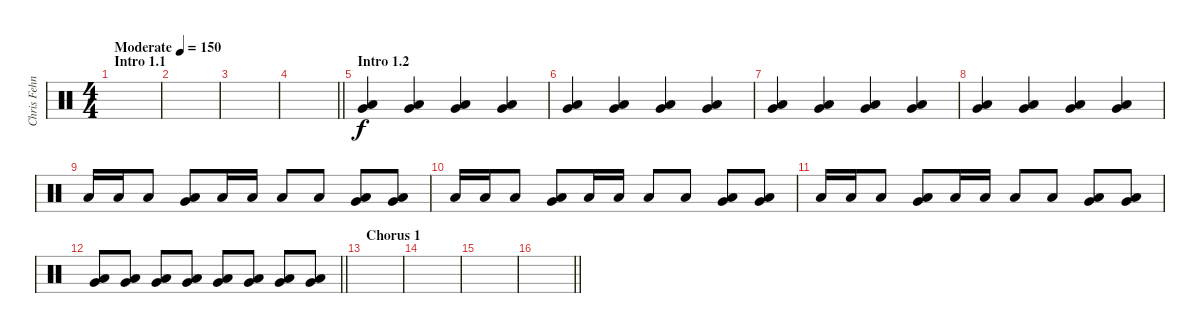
\track ("Chris Fehn" "Chris Fehn") {instrument percussion}
\staff {score}
\articulation defaults
\ts (4 4)
\section ("" "Intro 1.1")
\tempo (150 "Moderate")
\clef neutral
\ks c
|
|
|
\barLineRight lightlight
|
\section ("" "Intro 1.2")
("Very Low Tom (hit)" "Low Floor Tom (hit)").4 ("Very Low Tom (hit)" "Low Floor Tom (hit)").4 ("Very Low Tom (hit)" "Low Floor Tom (hit)").4 ("Very Low Tom (hit)" "Low Floor Tom (hit)").4 |
("Very Low Tom (hit)" "Low Floor Tom (hit)").4 ("Very Low Tom (hit)" "Low Floor Tom (hit)").4 ("Very Low Tom (hit)" "Low Floor Tom (hit)").4 ("Very Low Tom (hit)" "Low Floor Tom (hit)").4 |
("Very Low Tom (hit)" "Low Floor Tom (hit)").4 ("Very Low Tom (hit)" "Low Floor Tom (hit)").4 ("Very Low Tom (hit)" "Low Floor Tom (hit)").4 ("Very Low Tom (hit)" "Low Floor Tom (hit)").4 |
("Very Low Tom (hit)" "Low Floor Tom (hit)").4 ("Very Low Tom (hit)" "Low Floor Tom (hit)").4 ("Very Low Tom (hit)" "Low Floor Tom (hit)").4 ("Very Low Tom (hit)" "Low Floor Tom (hit)").4 |
"Low Floor Tom (hit)".16 "Low Floor Tom (hit)".16 "Low Floor Tom (hit)".8 ("Very Low Tom (hit)" "Low Floor Tom (hit)").8 "Low Floor Tom (hit)".16 "Low Floor Tom (hit)".16 "Low Floor Tom (hit)".8 "Low Floor Tom (hit)".8 ("Very Low Tom (hit)" "Low Floor Tom (hit)").8 ("Very Low Tom (hit)" "Low Floor Tom (hit)").8 |
"Low Floor Tom (hit)".16 "Low Floor Tom (hit)".16 "Low Floor Tom (hit)".8 ("Very Low Tom (hit)" "Low Floor Tom (hit)").8 "Low Floor Tom (hit)".16 "Low Floor Tom (hit)".16 "Low Floor Tom (hit)".8 "Low Floor Tom (hit)".8 ("Very Low Tom (hit)" "Low Floor Tom (hit)").8 ("Very Low Tom (hit)" "Low Floor Tom (hit)").8 |
"Low Floor Tom (hit)".16 "Low Floor Tom (hit)".16 "Low Floor Tom (hit)".8 ("Very Low Tom (hit)" "Low Floor Tom (hit)").8 "Low Floor Tom (hit)".16 "Low Floor Tom (hit)".16 "Low Floor Tom (hit)".8 "Low Floor Tom (hit)".8 ("Very Low Tom (hit)" "Low Floor Tom (hit)").8 ("Very Low Tom (hit)" "Low Floor Tom (hit)").8 |
\barLineRight lightlight
("Very Low Tom (hit)" "Low Floor Tom (hit)").8 ("Very Low Tom (hit)" "Low Floor Tom (hit)").8 ("Very Low Tom (hit)" "Low Floor Tom (hit)").8 ("Very Low Tom (hit)" "Low Floor Tom (hit)").8 ("Very Low Tom (hit)" "Low Floor Tom (hit)").8 ("Very Low Tom (hit)" "Low Floor Tom (hit)").8 ("Very Low Tom (hit)" "Low Floor Tom (hit)").8 ("Very Low Tom (hit)" "Low Floor Tom (hit)").8 |
\section ("" "Chorus 1")
|
|
|
\barLineRight lightlight
